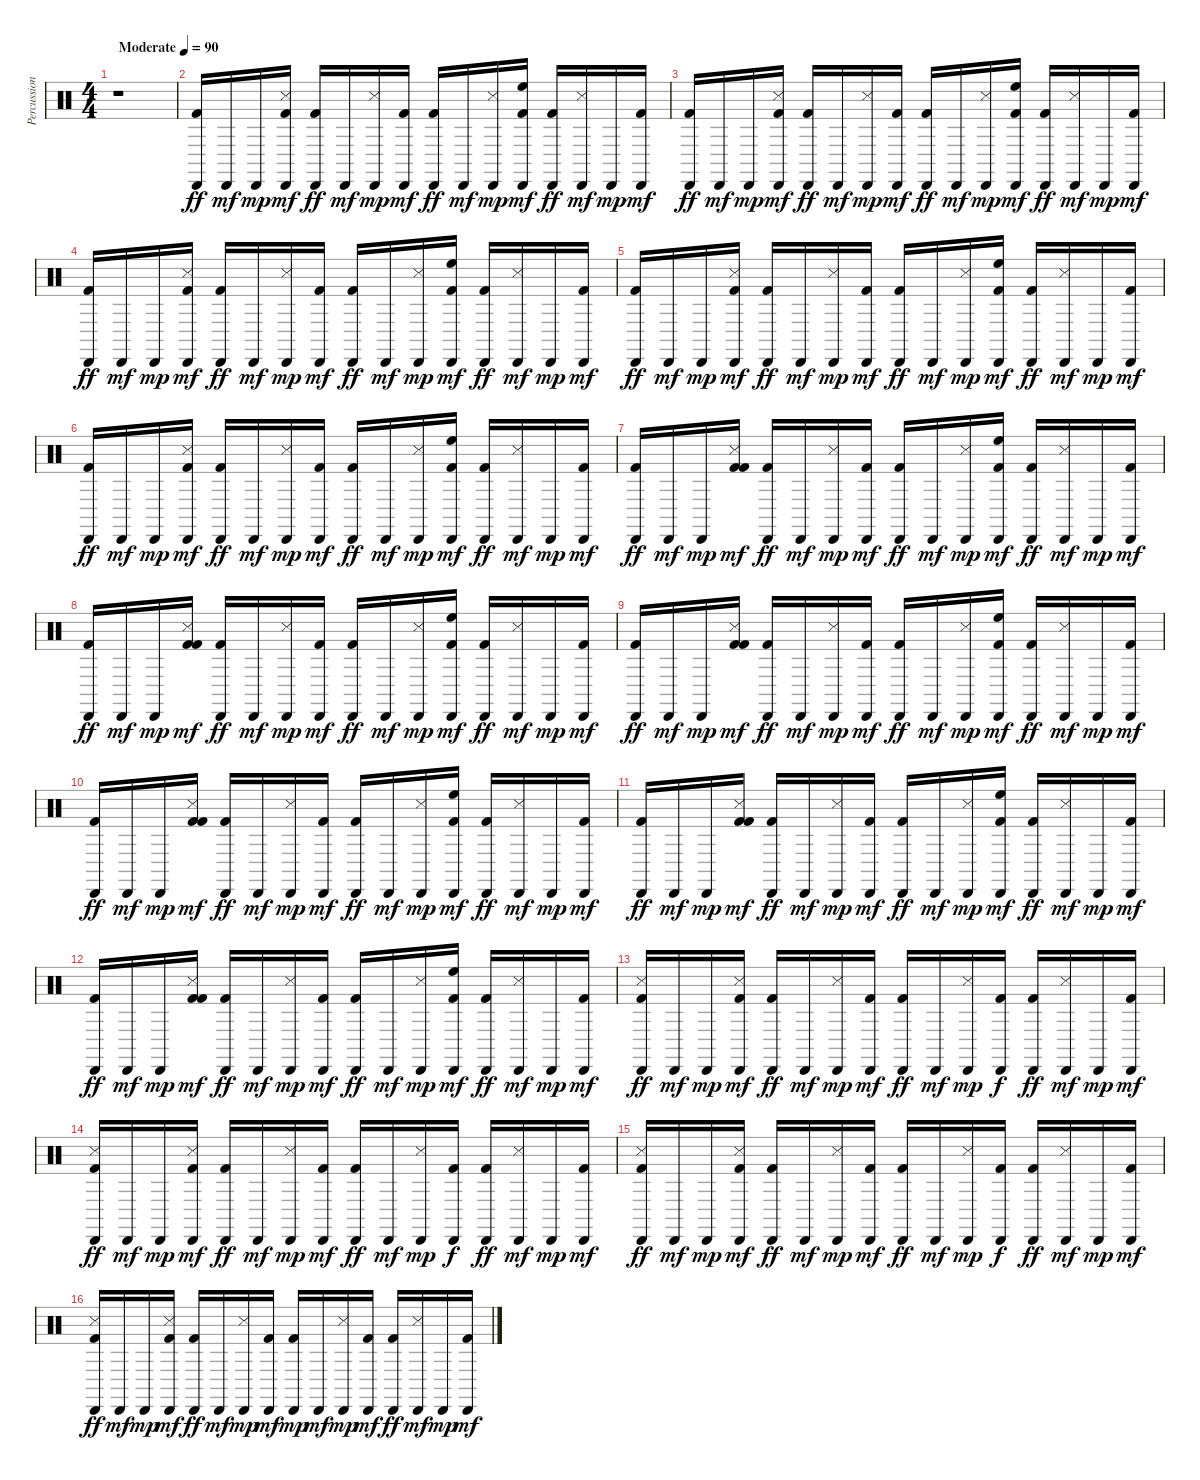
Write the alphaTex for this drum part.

\track ("Percussions" "Percussion") {instrument percussion}
\staff {score}
\articulation defaults
\ts (4 4)
\tempo (90 "Moderate")
\clef neutral
\ks c
r.1{dy ff} |
("Cabasa (hit)" "Kick (hit) 2").16 "Cabasa (hit)".16{dy mf} "Cabasa (hit)".16{dy mp} ("Kick (hit) 2" "Cabasa (hit)" "Snare (side stick) 3").16{dy mf} ("Cabasa (hit)" "Kick (hit) 2").16{dy ff} "Cabasa (hit)".16{dy mf} ("Cabasa (hit)" "Snare (side stick) 3").16{dy mp} ("Cabasa (hit)" "Kick (hit) 2").16{dy mf} ("Cabasa (hit)" "Kick (hit) 2").16{dy ff} "Cabasa (hit)".16{dy mf} ("Cabasa (hit)" "Snare (side stick) 3").16{dy mp} ("Cabasa (hit)" "Kick (hit) 2" "High Floor Tom (hit)").16{dy mf} ("Cabasa (hit)" "Kick (hit) 2").16{dy ff} ("Cabasa (hit)" "Snare (side stick) 3").16{dy mf} "Cabasa (hit)".16{dy mp} ("Cabasa (hit)" "Kick (hit) 2").16{dy mf} |
("Cabasa (hit)" "Kick (hit) 2").16{dy ff} "Cabasa (hit)".16{dy mf} "Cabasa (hit)".16{dy mp} ("Kick (hit) 2" "Cabasa (hit)" "Snare (side stick) 3").16{dy mf} ("Cabasa (hit)" "Kick (hit) 2").16{dy ff} "Cabasa (hit)".16{dy mf} ("Cabasa (hit)" "Snare (side stick) 3").16{dy mp} ("Cabasa (hit)" "Kick (hit) 2").16{dy mf} ("Cabasa (hit)" "Kick (hit) 2").16{dy ff} "Cabasa (hit)".16{dy mf} ("Cabasa (hit)" "Snare (side stick) 3").16{dy mp} ("Cabasa (hit)" "Kick (hit) 2" "High Floor Tom (hit)").16{dy mf} ("Cabasa (hit)" "Kick (hit) 2").16{dy ff} ("Cabasa (hit)" "Snare (side stick) 3").16{dy mf} "Cabasa (hit)".16{dy mp} ("Cabasa (hit)" "Kick (hit) 2").16{dy mf} |
("Cabasa (hit)" "Kick (hit) 2").16{dy ff} "Cabasa (hit)".16{dy mf} "Cabasa (hit)".16{dy mp} ("Kick (hit) 2" "Cabasa (hit)" "Snare (side stick) 3").16{dy mf} ("Cabasa (hit)" "Kick (hit) 2").16{dy ff} "Cabasa (hit)".16{dy mf} ("Cabasa (hit)" "Snare (side stick) 3").16{dy mp} ("Cabasa (hit)" "Kick (hit) 2").16{dy mf} ("Cabasa (hit)" "Kick (hit) 2").16{dy ff} "Cabasa (hit)".16{dy mf} ("Cabasa (hit)" "Snare (side stick) 3").16{dy mp} ("Cabasa (hit)" "Kick (hit) 2" "High Floor Tom (hit)").16{dy mf} ("Cabasa (hit)" "Kick (hit) 2").16{dy ff} ("Cabasa (hit)" "Snare (side stick) 3").16{dy mf} "Cabasa (hit)".16{dy mp} ("Cabasa (hit)" "Kick (hit) 2").16{dy mf} |
("Cabasa (hit)" "Kick (hit) 2").16{dy ff} "Cabasa (hit)".16{dy mf} "Cabasa (hit)".16{dy mp} ("Kick (hit) 2" "Cabasa (hit)" "Snare (side stick) 3").16{dy mf} ("Cabasa (hit)" "Kick (hit) 2").16{dy ff} "Cabasa (hit)".16{dy mf} ("Cabasa (hit)" "Snare (side stick) 3").16{dy mp} ("Cabasa (hit)" "Kick (hit) 2").16{dy mf} ("Cabasa (hit)" "Kick (hit) 2").16{dy ff} "Cabasa (hit)".16{dy mf} ("Cabasa (hit)" "Snare (side stick) 3").16{dy mp} ("Cabasa (hit)" "Kick (hit) 2" "High Floor Tom (hit)").16{dy mf} ("Cabasa (hit)" "Kick (hit) 2").16{dy ff} ("Cabasa (hit)" "Snare (side stick) 3").16{dy mf} "Cabasa (hit)".16{dy mp} ("Cabasa (hit)" "Kick (hit) 2").16{dy mf} |
("Cabasa (hit)" "Kick (hit) 2").16{dy ff} "Cabasa (hit)".16{dy mf} "Cabasa (hit)".16{dy mp} ("Kick (hit) 2" "Cabasa (hit)" "Snare (side stick) 3").16{dy mf} ("Cabasa (hit)" "Kick (hit) 2").16{dy ff} "Cabasa (hit)".16{dy mf} ("Cabasa (hit)" "Snare (side stick) 3").16{dy mp} ("Cabasa (hit)" "Kick (hit) 2").16{dy mf} ("Cabasa (hit)" "Kick (hit) 2").16{dy ff} "Cabasa (hit)".16{dy mf} ("Cabasa (hit)" "Snare (side stick) 3").16{dy mp} ("Cabasa (hit)" "Kick (hit) 2" "High Floor Tom (hit)").16{dy mf} ("Cabasa (hit)" "Kick (hit) 2").16{dy ff} ("Cabasa (hit)" "Snare (side stick) 3").16{dy mf} "Cabasa (hit)".16{dy mp} ("Cabasa (hit)" "Kick (hit) 2").16{dy mf} |
("Cabasa (hit)" "Kick (hit) 2").16{dy ff} "Cabasa (hit)".16{dy mf} "Cabasa (hit)".16{dy mp} ("Kick (hit) 2" "Snare (side stick) 3" "Kick (hit) 2").16{dy mf} ("Cabasa (hit)" "Kick (hit) 2").16{dy ff} "Cabasa (hit)".16{dy mf} ("Cabasa (hit)" "Snare (side stick) 3").16{dy mp} ("Cabasa (hit)" "Kick (hit) 2").16{dy mf} ("Cabasa (hit)" "Kick (hit) 2").16{dy ff} "Cabasa (hit)".16{dy mf} ("Cabasa (hit)" "Snare (side stick) 3").16{dy mp} ("Cabasa (hit)" "Kick (hit) 2" "High Floor Tom (hit)").16{dy mf} ("Cabasa (hit)" "Kick (hit) 2").16{dy ff} ("Cabasa (hit)" "Snare (side stick) 3").16{dy mf} "Cabasa (hit)".16{dy mp} ("Cabasa (hit)" "Kick (hit) 2").16{dy mf} |
("Cabasa (hit)" "Kick (hit) 2").16{dy ff} "Cabasa (hit)".16{dy mf} "Cabasa (hit)".16{dy mp} ("Kick (hit) 2" "Snare (side stick) 3" "Kick (hit) 2").16{dy mf} ("Cabasa (hit)" "Kick (hit) 2").16{dy ff} "Cabasa (hit)".16{dy mf} ("Cabasa (hit)" "Snare (side stick) 3").16{dy mp} ("Cabasa (hit)" "Kick (hit) 2").16{dy mf} ("Cabasa (hit)" "Kick (hit) 2").16{dy ff} "Cabasa (hit)".16{dy mf} ("Cabasa (hit)" "Snare (side stick) 3").16{dy mp} ("Cabasa (hit)" "Kick (hit) 2" "High Floor Tom (hit)").16{dy mf} ("Cabasa (hit)" "Kick (hit) 2").16{dy ff} ("Cabasa (hit)" "Snare (side stick) 3").16{dy mf} "Cabasa (hit)".16{dy mp} ("Cabasa (hit)" "Kick (hit) 2").16{dy mf} |
("Cabasa (hit)" "Kick (hit) 2").16{dy ff} "Cabasa (hit)".16{dy mf} "Cabasa (hit)".16{dy mp} ("Kick (hit) 2" "Snare (side stick) 3" "Kick (hit) 2").16{dy mf} ("Cabasa (hit)" "Kick (hit) 2").16{dy ff} "Cabasa (hit)".16{dy mf} ("Cabasa (hit)" "Snare (side stick) 3").16{dy mp} ("Cabasa (hit)" "Kick (hit) 2").16{dy mf} ("Cabasa (hit)" "Kick (hit) 2").16{dy ff} "Cabasa (hit)".16{dy mf} ("Cabasa (hit)" "Snare (side stick) 3").16{dy mp} ("Cabasa (hit)" "Kick (hit) 2" "High Floor Tom (hit)").16{dy mf} ("Cabasa (hit)" "Kick (hit) 2").16{dy ff} ("Cabasa (hit)" "Snare (side stick) 3").16{dy mf} "Cabasa (hit)".16{dy mp} ("Cabasa (hit)" "Kick (hit) 2").16{dy mf} |
("Cabasa (hit)" "Kick (hit) 2").16{dy ff} "Cabasa (hit)".16{dy mf} "Cabasa (hit)".16{dy mp} ("Kick (hit) 2" "Snare (side stick) 3" "Kick (hit) 2").16{dy mf} ("Cabasa (hit)" "Kick (hit) 2").16{dy ff} "Cabasa (hit)".16{dy mf} ("Cabasa (hit)" "Snare (side stick) 3").16{dy mp} ("Cabasa (hit)" "Kick (hit) 2").16{dy mf} ("Cabasa (hit)" "Kick (hit) 2").16{dy ff} "Cabasa (hit)".16{dy mf} ("Cabasa (hit)" "Snare (side stick) 3").16{dy mp} ("Cabasa (hit)" "Kick (hit) 2" "High Floor Tom (hit)").16{dy mf} ("Cabasa (hit)" "Kick (hit) 2").16{dy ff} ("Cabasa (hit)" "Snare (side stick) 3").16{dy mf} "Cabasa (hit)".16{dy mp} ("Cabasa (hit)" "Kick (hit) 2").16{dy mf} |
("Cabasa (hit)" "Kick (hit) 2").16{dy ff} "Cabasa (hit)".16{dy mf} "Cabasa (hit)".16{dy mp} ("Kick (hit) 2" "Snare (side stick) 3" "Kick (hit) 2").16{dy mf} ("Cabasa (hit)" "Kick (hit) 2").16{dy ff} "Cabasa (hit)".16{dy mf} ("Cabasa (hit)" "Snare (side stick) 3").16{dy mp} ("Cabasa (hit)" "Kick (hit) 2").16{dy mf} ("Cabasa (hit)" "Kick (hit) 2").16{dy ff} "Cabasa (hit)".16{dy mf} ("Cabasa (hit)" "Snare (side stick) 3").16{dy mp} ("Cabasa (hit)" "Kick (hit) 2" "High Floor Tom (hit)").16{dy mf} ("Cabasa (hit)" "Kick (hit) 2").16{dy ff} ("Cabasa (hit)" "Snare (side stick) 3").16{dy mf} "Cabasa (hit)".16{dy mp} ("Cabasa (hit)" "Kick (hit) 2").16{dy mf} |
("Cabasa (hit)" "Kick (hit) 2").16{dy ff} "Cabasa (hit)".16{dy mf} "Cabasa (hit)".16{dy mp} ("Kick (hit) 2" "Snare (side stick) 3" "Kick (hit) 2").16{dy mf} ("Cabasa (hit)" "Kick (hit) 2").16{dy ff} "Cabasa (hit)".16{dy mf} ("Cabasa (hit)" "Snare (side stick) 3").16{dy mp} ("Cabasa (hit)" "Kick (hit) 2").16{dy mf} ("Cabasa (hit)" "Kick (hit) 2").16{dy ff} "Cabasa (hit)".16{dy mf} ("Cabasa (hit)" "Snare (side stick) 3").16{dy mp} ("Cabasa (hit)" "Kick (hit) 2" "High Floor Tom (hit)").16{dy mf} ("Cabasa (hit)" "Kick (hit) 2").16{dy ff} ("Cabasa (hit)" "Snare (side stick) 3").16{dy mf} "Cabasa (hit)".16{dy mp} ("Cabasa (hit)" "Kick (hit) 2").16{dy mf} |
("Cabasa (hit)" "Snare (side stick) 3" "Kick (hit) 2").16{dy ff} "Cabasa (hit)".16{dy mf} "Cabasa (hit)".16{dy mp} ("Cabasa (hit)" "Snare (side stick) 3" "Kick (hit) 2").16{dy mf} ("Cabasa (hit)" "Kick (hit) 2").16{dy ff} "Cabasa (hit)".16{dy mf} ("Cabasa (hit)" "Snare (side stick) 3").16{dy mp} ("Cabasa (hit)" "Kick (hit) 2").16{dy mf} ("Cabasa (hit)" "Kick (hit) 2").16{dy ff} "Cabasa (hit)".16{dy mf} ("Cabasa (hit)" "Snare (side stick) 3").16{dy mp} ("Cabasa (hit)" "Kick (hit) 2").16{dy f} ("Cabasa (hit)" "Kick (hit) 2").16{dy ff} ("Cabasa (hit)" "Snare (side stick) 3").16{dy mf} "Cabasa (hit)".16{dy mp} ("Kick (hit) 2" "Cabasa (hit)").16{dy mf} |
("Cabasa (hit)" "Snare (side stick) 3" "Kick (hit) 2").16{dy ff} "Cabasa (hit)".16{dy mf} "Cabasa (hit)".16{dy mp} ("Cabasa (hit)" "Snare (side stick) 3" "Kick (hit) 2").16{dy mf} ("Cabasa (hit)" "Kick (hit) 2").16{dy ff} "Cabasa (hit)".16{dy mf} ("Cabasa (hit)" "Snare (side stick) 3").16{dy mp} ("Cabasa (hit)" "Kick (hit) 2").16{dy mf} ("Cabasa (hit)" "Kick (hit) 2").16{dy ff} "Cabasa (hit)".16{dy mf} ("Cabasa (hit)" "Snare (side stick) 3").16{dy mp} ("Cabasa (hit)" "Kick (hit) 2").16{dy f} ("Cabasa (hit)" "Kick (hit) 2").16{dy ff} ("Cabasa (hit)" "Snare (side stick) 3").16{dy mf} "Cabasa (hit)".16{dy mp} ("Kick (hit) 2" "Cabasa (hit)").16{dy mf} |
("Cabasa (hit)" "Snare (side stick) 3" "Kick (hit) 2").16{dy ff} "Cabasa (hit)".16{dy mf} "Cabasa (hit)".16{dy mp} ("Cabasa (hit)" "Snare (side stick) 3" "Kick (hit) 2").16{dy mf} ("Cabasa (hit)" "Kick (hit) 2").16{dy ff} "Cabasa (hit)".16{dy mf} ("Cabasa (hit)" "Snare (side stick) 3").16{dy mp} ("Cabasa (hit)" "Kick (hit) 2").16{dy mf} ("Cabasa (hit)" "Kick (hit) 2").16{dy ff} "Cabasa (hit)".16{dy mf} ("Cabasa (hit)" "Snare (side stick) 3").16{dy mp} ("Cabasa (hit)" "Kick (hit) 2").16{dy f} ("Cabasa (hit)" "Kick (hit) 2").16{dy ff} ("Cabasa (hit)" "Snare (side stick) 3").16{dy mf} "Cabasa (hit)".16{dy mp} ("Kick (hit) 2" "Cabasa (hit)").16{dy mf} |
("Cabasa (hit)" "Snare (side stick) 3" "Kick (hit) 2").16{dy ff} "Cabasa (hit)".16{dy mf} "Cabasa (hit)".16{dy mp} ("Cabasa (hit)" "Snare (side stick) 3" "Kick (hit) 2").16{dy mf} ("Cabasa (hit)" "Kick (hit) 2").16{dy ff} "Cabasa (hit)".16{dy mf} ("Snare (side stick) 3" "Cabasa (hit)").16{dy mp} ("Cabasa (hit)" "Kick (hit) 2").16{dy mf} ("Kick (hit) 2" "Cabasa (hit)").16{dy mp} "Cabasa (hit)".16{dy mf} ("Cabasa (hit)" "Snare (side stick) 3").16{dy mp} ("Cabasa (hit)" "Kick (hit) 2").16{dy mf} ("Cabasa (hit)" "Kick (hit) 2").16{dy ff} ("Cabasa (hit)" "Snare (side stick) 3").16{dy mf} "Cabasa (hit)".16{dy mp} ("Cabasa (hit)" "Kick (hit) 2").16{dy mf}
